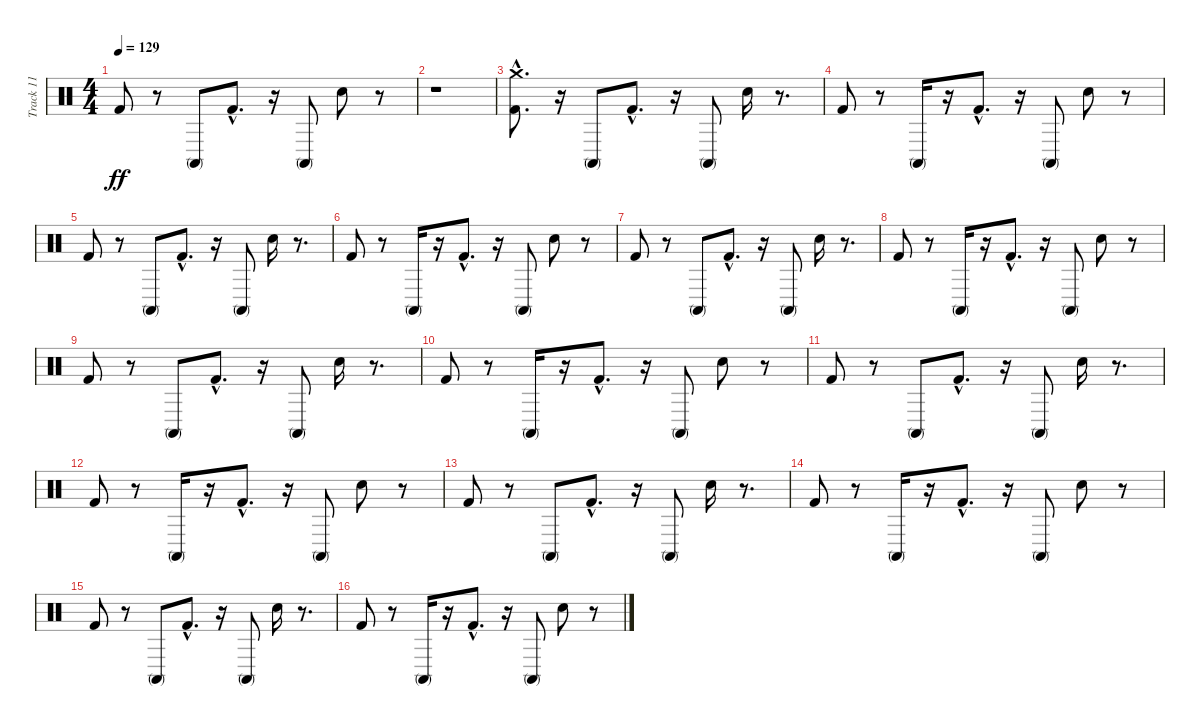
\track ("Track 11" "Track 11") {instrument percussion}
\staff {score}
\articulation defaults
\ts (4 4)
\tempo 129
\clef neutral
\ks c "Kick (hit) 2".8{dy ff}
r.8 "Conga high (mute)".8 "Kick (hit) 2"{hac}.8{d} r.16 "Conga high (mute)".8 "Snare (hit) 2".8 r.8 |
r.1 |
("Kick (hit) 2" "Crash medium (hit)"{hac}).8{d} r.16 "Conga high (mute)".8 "Kick (hit) 2"{hac}.8{d} r.16 "Conga high (mute)".8 "Snare (hit) 2".16 r.8{d} |
"Kick (hit) 2".8 r.8 "Conga high (mute)".16 r.16 "Kick (hit) 2"{hac}.8{d} r.16 "Conga high (mute)".8 "Snare (hit) 2".8 r.8 |
"Kick (hit) 2".8 r.8 "Conga high (mute)".8 "Kick (hit) 2"{hac}.8{d} r.16 "Conga high (mute)".8 "Snare (hit) 2".16 r.8{d} |
"Kick (hit) 2".8 r.8 "Conga high (mute)".16 r.16 "Kick (hit) 2"{hac}.8{d} r.16 "Conga high (mute)".8 "Snare (hit) 2".8 r.8 |
"Kick (hit) 2".8 r.8 "Conga high (mute)".8 "Kick (hit) 2"{hac}.8{d} r.16 "Conga high (mute)".8 "Snare (hit) 2".16 r.8{d} |
"Kick (hit) 2".8 r.8 "Conga high (mute)".16 r.16 "Kick (hit) 2"{hac}.8{d} r.16 "Conga high (mute)".8 "Snare (hit) 2".8 r.8 |
"Kick (hit) 2".8 r.8 "Conga high (mute)".8 "Kick (hit) 2"{hac}.8{d} r.16 "Conga high (mute)".8 "Snare (hit) 2".16 r.8{d} |
"Kick (hit) 2".8 r.8 "Conga high (mute)".16 r.16 "Kick (hit) 2"{hac}.8{d} r.16 "Conga high (mute)".8 "Snare (hit) 2".8 r.8 |
"Kick (hit) 2".8 r.8 "Conga high (mute)".8 "Kick (hit) 2"{hac}.8{d} r.16 "Conga high (mute)".8 "Snare (hit) 2".16 r.8{d} |
"Kick (hit) 2".8 r.8 "Conga high (mute)".16 r.16 "Kick (hit) 2"{hac}.8{d} r.16 "Conga high (mute)".8 "Snare (hit) 2".8 r.8 |
"Kick (hit) 2".8 r.8 "Conga high (mute)".8 "Kick (hit) 2"{hac}.8{d} r.16 "Conga high (mute)".8 "Snare (hit) 2".16 r.8{d} |
"Kick (hit) 2".8 r.8 "Conga high (mute)".16 r.16 "Kick (hit) 2"{hac}.8{d} r.16 "Conga high (mute)".8 "Snare (hit) 2".8 r.8 |
"Kick (hit) 2".8 r.8 "Conga high (mute)".8 "Kick (hit) 2"{hac}.8{d} r.16 "Conga high (mute)".8 "Snare (hit) 2".16 r.8{d} |
"Kick (hit) 2".8 r.8 "Conga high (mute)".16 r.16 "Kick (hit) 2"{hac}.8{d} r.16 "Conga high (mute)".8 "Snare (hit) 2".8 r.8
